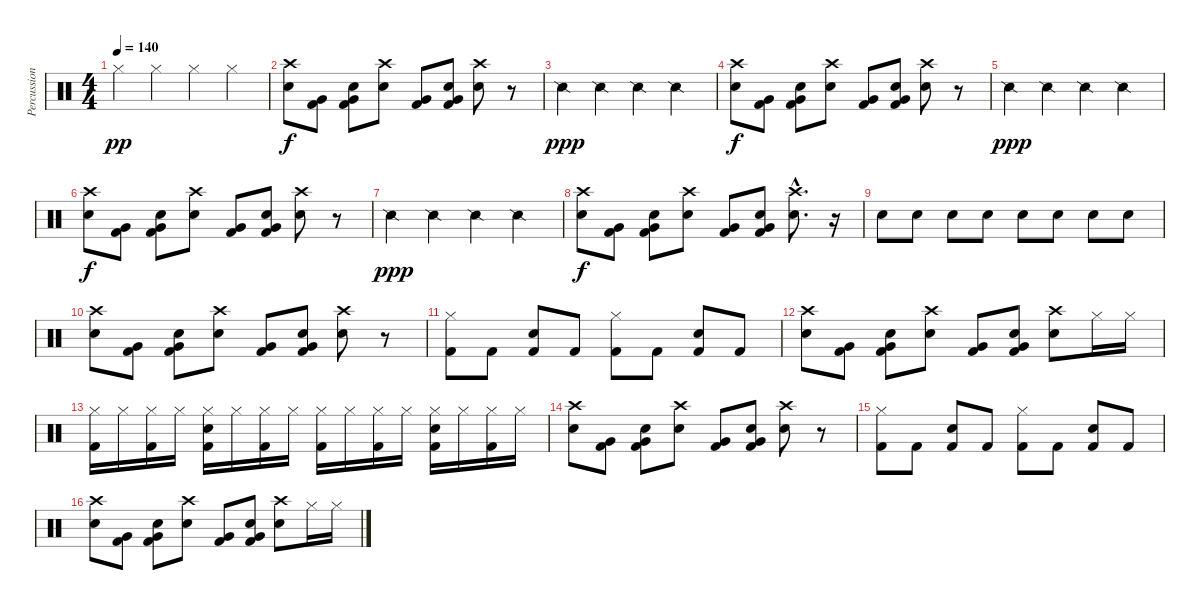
\track ("Percussion" "Percussion") {instrument percussion}
\staff {score}
\articulation defaults
\ts (4 4)
\tempo 140
\clef neutral
\ks c "Hi-Hat (closed)".4{dy pp} "Hi-Hat (closed)".4 "Hi-Hat (closed)".4 "Hi-Hat (closed)".4
|
("Crash high (hit)" "Snare (hit) 2").8{dy f} ("Very Low Tom (hit)" "Kick (hit) 2").8 ("Very Low Tom (hit)" "Snare (hit) 2" "Kick (hit) 2").8 ("Crash high (hit)" "Snare (hit) 2").8 ("Very Low Tom (hit)" "Kick (hit) 2").8 ("Very Low Tom (hit)" "Snare (hit) 2" "Kick (hit) 2").8 ("Crash high (hit)" "Snare (hit) 2").8 r.8 |
"Snare (side stick) 2".4{dy ppp} "Snare (side stick) 2".4 "Snare (side stick) 2".4 "Snare (side stick) 2".4 |
("Crash high (hit)" "Snare (hit) 2").8{dy f} ("Very Low Tom (hit)" "Kick (hit) 2").8 ("Very Low Tom (hit)" "Snare (hit) 2" "Kick (hit) 2").8 ("Crash high (hit)" "Snare (hit) 2").8 ("Very Low Tom (hit)" "Kick (hit) 2").8 ("Very Low Tom (hit)" "Snare (hit) 2" "Kick (hit) 2").8 ("Crash high (hit)" "Snare (hit) 2").8 r.8 |
"Snare (side stick) 2".4{dy ppp} "Snare (side stick) 2".4 "Snare (side stick) 2".4 "Snare (side stick) 2".4 |
("Crash high (hit)" "Snare (hit) 2").8{dy f} ("Very Low Tom (hit)" "Kick (hit) 2").8 ("Very Low Tom (hit)" "Snare (hit) 2" "Kick (hit) 2").8 ("Crash high (hit)" "Snare (hit) 2").8 ("Very Low Tom (hit)" "Kick (hit) 2").8 ("Very Low Tom (hit)" "Snare (hit) 2" "Kick (hit) 2").8 ("Crash high (hit)" "Snare (hit) 2").8 r.8 |
"Snare (side stick) 2".4{dy ppp} "Snare (side stick) 2".4 "Snare (side stick) 2".4 "Snare (side stick) 2".4 |
("Crash high (hit)" "Snare (hit) 2").8{dy f} ("Very Low Tom (hit)" "Kick (hit) 2").8 ("Very Low Tom (hit)" "Snare (hit) 2" "Kick (hit) 2").8 ("Crash high (hit)" "Snare (hit) 2").8 ("Very Low Tom (hit)" "Kick (hit) 2").8 ("Very Low Tom (hit)" "Snare (hit) 2" "Kick (hit) 2").8 ("Crash high (hit)"{hac} "Snare (hit) 2"{hac}).8{d} r.16{volume 2} |
"Snare (hit) 2".8{volume 16} "Snare (hit) 2".8 "Snare (hit) 2".8 "Snare (hit) 2".8 "Snare (hit) 2".8 "Snare (hit) 2".8 "Snare (hit) 2".8 "Snare (hit) 2".8 |
("Crash high (hit)" "Snare (hit) 2").8 ("Very Low Tom (hit)" "Kick (hit) 2").8 ("Very Low Tom (hit)" "Snare (hit) 2" "Kick (hit) 2").8 ("Crash high (hit)" "Snare (hit) 2").8 ("Very Low Tom (hit)" "Kick (hit) 2").8 ("Very Low Tom (hit)" "Snare (hit) 2" "Kick (hit) 2").8 ("Crash high (hit)" "Snare (hit) 2").8 r.8 |
("Hi-Hat (closed)" "Kick (hit) 2").8 "Kick (hit) 2".8 ("Snare (hit) 2" "Kick (hit) 2").8 "Kick (hit) 2".8 ("Hi-Hat (closed)" "Kick (hit) 2").8 "Kick (hit) 2".8 ("Snare (hit) 2" "Kick (hit) 2").8 "Kick (hit) 2".8 |
("Crash high (hit)" "Snare (hit) 2").8 ("Very Low Tom (hit)" "Kick (hit) 2").8 ("Very Low Tom (hit)" "Snare (hit) 2" "Kick (hit) 2").8 ("Crash high (hit)" "Snare (hit) 2").8 ("Very Low Tom (hit)" "Kick (hit) 2").8 ("Very Low Tom (hit)" "Snare (hit) 2" "Kick (hit) 2").8 ("Crash high (hit)" "Snare (hit) 2").8 "Hi-Hat (closed)".16 "Hi-Hat (closed)".16 |
("Hi-Hat (closed)" "Kick (hit) 2").16 "Hi-Hat (closed)".16 ("Hi-Hat (closed)" "Kick (hit) 2").16 "Hi-Hat (closed)".16 ("Hi-Hat (closed)" "Snare (hit) 2" "Kick (hit) 2").16 "Hi-Hat (closed)".16 ("Hi-Hat (closed)" "Kick (hit) 2").16 "Hi-Hat (closed)".16 ("Hi-Hat (closed)" "Kick (hit) 2").16 "Hi-Hat (closed)".16 ("Hi-Hat (closed)" "Kick (hit) 2").16 "Hi-Hat (closed)".16 ("Hi-Hat (closed)" "Snare (hit) 2" "Kick (hit) 2").16 "Hi-Hat (closed)".16 ("Hi-Hat (closed)" "Kick (hit) 2").16 "Hi-Hat (closed)".16 |
("Crash high (hit)" "Snare (hit) 2").8 ("Very Low Tom (hit)" "Kick (hit) 2").8 ("Very Low Tom (hit)" "Snare (hit) 2" "Kick (hit) 2").8 ("Crash high (hit)" "Snare (hit) 2").8 ("Very Low Tom (hit)" "Kick (hit) 2").8 ("Very Low Tom (hit)" "Snare (hit) 2" "Kick (hit) 2").8 ("Crash high (hit)" "Snare (hit) 2").8 r.8 |
("Hi-Hat (closed)" "Kick (hit) 2").8 "Kick (hit) 2".8 ("Snare (hit) 2" "Kick (hit) 2").8 "Kick (hit) 2".8 ("Hi-Hat (closed)" "Kick (hit) 2").8 "Kick (hit) 2".8 ("Snare (hit) 2" "Kick (hit) 2").8 "Kick (hit) 2".8 |
("Crash high (hit)" "Snare (hit) 2").8 ("Very Low Tom (hit)" "Kick (hit) 2").8 ("Very Low Tom (hit)" "Snare (hit) 2" "Kick (hit) 2").8 ("Crash high (hit)" "Snare (hit) 2").8 ("Very Low Tom (hit)" "Kick (hit) 2").8 ("Very Low Tom (hit)" "Snare (hit) 2" "Kick (hit) 2").8 ("Crash high (hit)" "Snare (hit) 2").8 "Hi-Hat (closed)".16 "Hi-Hat (closed)".16
